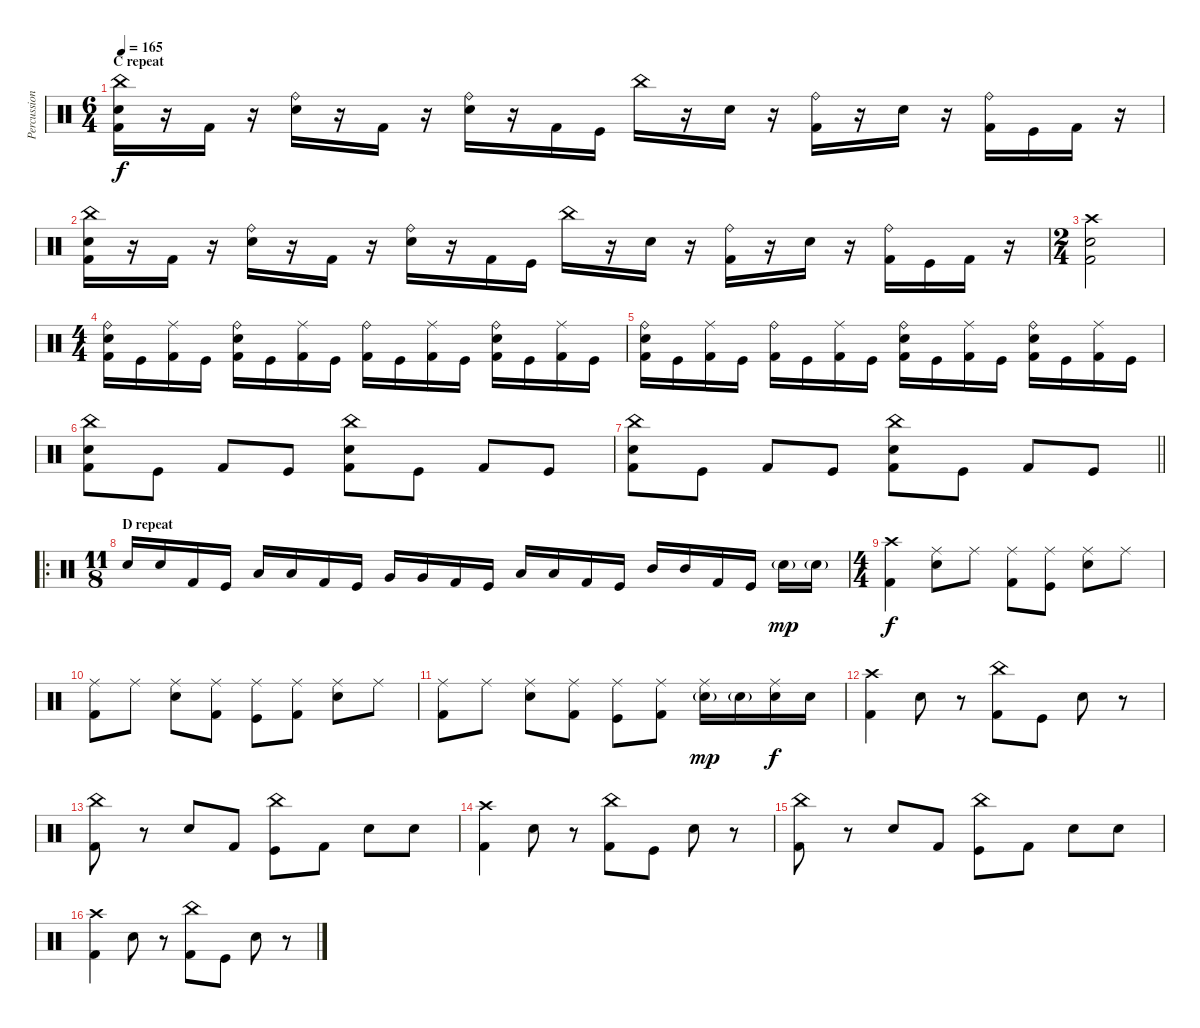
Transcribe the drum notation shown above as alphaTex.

\track ("Percussion" "Percussion") {instrument percussion}
\staff {score}
\articulation defaults
\ts (6 4)
\section ("" "C repeat")
\tempo 165
\clef neutral
\ks c
("China (hit)" "Electric Snare (hit)" "Kick (hit) 2").16{dy f} r.16 "Kick (hit) 2".16 r.16 ("Ride (bell)" "Electric Snare (hit)").16 r.16 "Kick (hit) 2".16 r.16 ("Ride (bell)" "Electric Snare (hit)").16 r.16 "Kick (hit) 2".16 "Kick (hit)".16 "China (hit)".16 r.16 "Electric Snare (hit)".16 r.16 ("Ride (bell)" "Kick (hit) 2").16 r.16 "Electric Snare (hit)".16 r.16 ("Ride (bell)" "Kick (hit) 2").16 "Kick (hit)".16 "Kick (hit) 2".16 r.16 |
("China (hit)" "Electric Snare (hit)" "Kick (hit) 2").16 r.16 "Kick (hit) 2".16 r.16 ("Ride (bell)" "Electric Snare (hit)").16 r.16 "Kick (hit) 2".16 r.16 ("Ride (bell)" "Electric Snare (hit)").16 r.16 "Kick (hit) 2".16 "Kick (hit)".16 "China (hit)".16 r.16 "Electric Snare (hit)".16 r.16 ("Ride (bell)" "Kick (hit) 2").16 r.16 "Electric Snare (hit)".16 r.16 ("Ride (bell)" "Kick (hit) 2").16 "Kick (hit)".16 "Kick (hit) 2".16 r.16 |
\ts (2 4)
("Crash high (hit)" "Electric Snare (hit)" "Kick (hit) 2").2 |
\ts (4 4)
("Ride (bell)" "Electric Snare (hit)" "Kick (hit) 2").16 "Kick (hit)".16 ("Ride (middle)" "Kick (hit) 2").16 "Kick (hit)".16 ("Ride (bell)" "Electric Snare (hit)" "Kick (hit) 2").16 "Kick (hit)".16 ("Ride (middle)" "Kick (hit) 2").16 "Kick (hit)".16 ("Ride (bell)" "Kick (hit) 2").16 "Kick (hit)".16 ("Ride (middle)" "Kick (hit) 2").16 "Kick (hit)".16 ("Ride (bell)" "Electric Snare (hit)" "Kick (hit) 2").16 "Kick (hit)".16 ("Ride (middle)" "Kick (hit) 2").16 "Kick (hit)".16 |
("Ride (bell)" "Electric Snare (hit)" "Kick (hit) 2").16 "Kick (hit)".16 ("Ride (middle)" "Kick (hit) 2").16 "Kick (hit)".16 ("Ride (bell)" "Kick (hit) 2").16 "Kick (hit)".16 ("Ride (middle)" "Kick (hit) 2").16 "Kick (hit)".16 ("Ride (bell)" "Electric Snare (hit)" "Kick (hit) 2").16 "Kick (hit)".16 ("Ride (middle)" "Kick (hit) 2").16 "Kick (hit)".16 ("Ride (bell)" "Electric Snare (hit)" "Kick (hit) 2").16 "Kick (hit)".16 ("Ride (middle)" "Kick (hit) 2").16 "Kick (hit)".16 |
("China (hit)" "Electric Snare (hit)" "Kick (hit) 2").8 "Kick (hit)".8 "Kick (hit) 2".8 "Kick (hit)".8 ("China (hit)" "Electric Snare (hit)" "Kick (hit) 2").8 "Kick (hit)".8 "Kick (hit) 2".8 "Kick (hit)".8 |
\barLineRight lightlight
("China (hit)" "Electric Snare (hit)" "Kick (hit) 2").8 "Kick (hit)".8 "Kick (hit) 2".8 "Kick (hit)".8 ("China (hit)" "Electric Snare (hit)" "Kick (hit) 2").8 "Kick (hit)".8 "Kick (hit) 2".8 "Kick (hit)".8 |
\ro
\ts (11 8)
\section ("" "D repeat")
"Electric Snare (hit)".16 "Electric Snare (hit)".16 "Kick (hit) 2".16 "Kick (hit)".16 "Low Tom (hit)".16 "Low Tom (hit)".16 "Kick (hit) 2".16 "Kick (hit)".16 "Very Low Tom (hit)".16 "Very Low Tom (hit)".16 "Kick (hit) 2".16 "Kick (hit)".16 "Low Floor Tom (hit)".16 "Low Floor Tom (hit)".16 "Kick (hit) 2".16 "Kick (hit)".16 "Mid Tom (hit)".16 "Mid Tom (hit)".16 "Kick (hit) 2".16 "Kick (hit)".16 "Electric Snare (hit)"{g}.16{dy mp} "Electric Snare (hit)"{g}.16 |
\ts (4 4)
("Crash high (hit)" "Kick (hit) 2").4{dy f} ("Ride (middle)" "Electric Snare (hit)").8 "Ride (middle)".8 ("Ride (middle)" "Kick (hit) 2").8 ("Ride (middle)" "Kick (hit)").8 ("Ride (middle)" "Electric Snare (hit)").8 "Ride (middle)".8 |
("Ride (middle)" "Kick (hit) 2").8 "Ride (middle)".8 ("Ride (middle)" "Electric Snare (hit)").8 ("Ride (middle)" "Kick (hit) 2").8 ("Ride (middle)" "Kick (hit)").8 ("Ride (middle)" "Kick (hit) 2").8 ("Ride (middle)" "Electric Snare (hit)").8 "Ride (middle)".8 |
("Ride (middle)" "Kick (hit) 2").8 "Ride (middle)".8 ("Ride (middle)" "Electric Snare (hit)").8 ("Ride (middle)" "Kick (hit) 2").8 ("Ride (middle)" "Kick (hit)").8 ("Ride (middle)" "Kick (hit) 2").8 ("Ride (middle)" "Electric Snare (hit)"{g}).16{dy mp} "Electric Snare (hit)"{g}.16 ("Ride (middle)" "Electric Snare (hit)").16{dy f} "Electric Snare (hit)".16 |
("Crash high (hit)" "Kick (hit) 2").4 "Electric Snare (hit)".8 r.8 ("China (hit)" "Kick (hit) 2").8 "Kick (hit)".8 "Electric Snare (hit)".8 r.8 |
("China (hit)" "Kick (hit) 2").8 r.8 "Electric Snare (hit)".8 "Kick (hit) 2".8 ("China (hit)" "Kick (hit)").8 "Kick (hit) 2".8 "Electric Snare (hit)".8 "Electric Snare (hit)".8 |
("Crash high (hit)" "Kick (hit) 2").4 "Electric Snare (hit)".8 r.8 ("China (hit)" "Kick (hit) 2").8 "Kick (hit)".8 "Electric Snare (hit)".8 r.8 |
("China (hit)" "Kick (hit) 2").8 r.8 "Electric Snare (hit)".8 "Kick (hit) 2".8 ("China (hit)" "Kick (hit)").8 "Kick (hit) 2".8 "Electric Snare (hit)".8 "Electric Snare (hit)".8 |
("Crash high (hit)" "Kick (hit) 2").4 "Electric Snare (hit)".8 r.8 ("China (hit)" "Kick (hit) 2").8 "Kick (hit)".8 "Electric Snare (hit)".8 r.8
